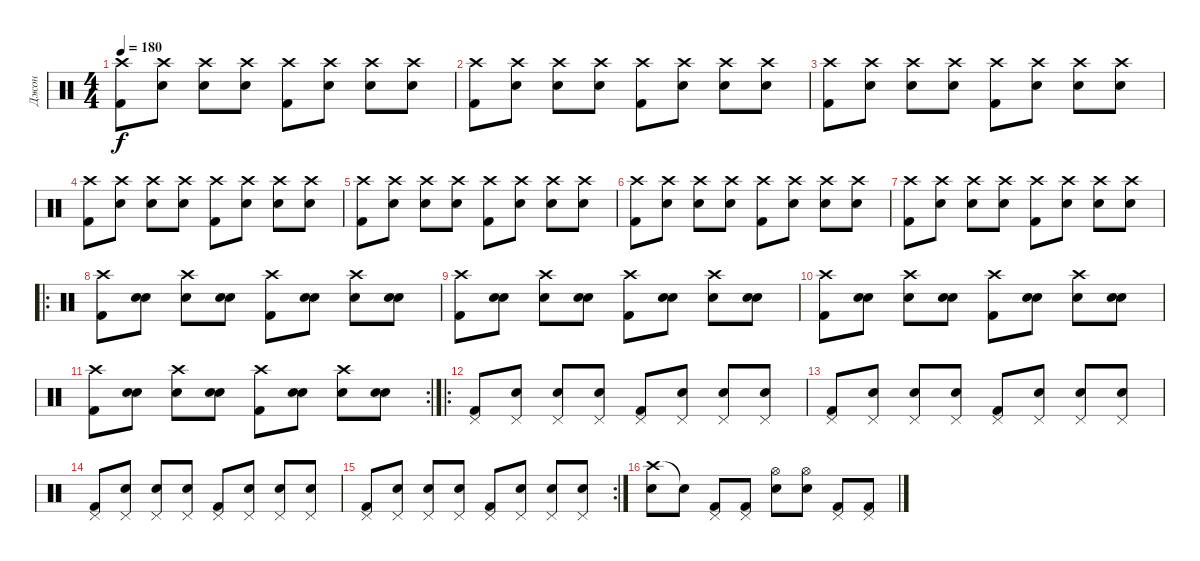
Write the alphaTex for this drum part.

\track ("Джон" "Джон") {instrument percussion}
\staff {score}
\articulation defaults
\ts (4 4)
\tempo 180
\clef neutral
\ks c
("Kick (hit) 2" "Crash high (hit)").8{dy f} ("Snare (hit)" "Crash high (hit)").8 ("Electric Snare (hit)" "Crash high (hit)").8 ("Snare (hit)" "Crash high (hit)").8 ("Kick (hit) 2" "Crash high (hit)").8 ("Snare (hit)" "Crash high (hit)").8 ("Electric Snare (hit)" "Crash high (hit)").8 ("Snare (hit)" "Crash high (hit)").8 |
("Kick (hit) 2" "Crash high (hit)").8 ("Snare (hit)" "Crash high (hit)").8 ("Electric Snare (hit)" "Crash high (hit)").8 ("Snare (hit)" "Crash high (hit)").8 ("Kick (hit) 2" "Crash high (hit)").8 ("Snare (hit)" "Crash high (hit)").8 ("Electric Snare (hit)" "Crash high (hit)").8 ("Snare (hit)" "Crash high (hit)").8 |
("Kick (hit) 2" "Crash high (hit)").8 ("Snare (hit)" "Crash high (hit)").8 ("Electric Snare (hit)" "Crash high (hit)").8 ("Snare (hit)" "Crash high (hit)").8 ("Kick (hit) 2" "Crash high (hit)").8 ("Snare (hit)" "Crash high (hit)").8 ("Electric Snare (hit)" "Crash high (hit)").8 ("Snare (hit)" "Crash high (hit)").8 |
("Kick (hit) 2" "Crash high (hit)").8 ("Snare (hit)" "Crash high (hit)").8 ("Electric Snare (hit)" "Crash high (hit)").8 ("Snare (hit)" "Crash high (hit)").8 ("Kick (hit) 2" "Crash high (hit)").8 ("Snare (hit)" "Crash high (hit)").8 ("Electric Snare (hit)" "Crash high (hit)").8 ("Snare (hit)" "Crash high (hit)").8 |
("Kick (hit) 2" "Crash high (hit)").8 ("Snare (hit)" "Crash high (hit)").8 ("Electric Snare (hit)" "Crash high (hit)").8 ("Snare (hit)" "Crash high (hit)").8 ("Kick (hit) 2" "Crash high (hit)").8 ("Snare (hit)" "Crash high (hit)").8 ("Electric Snare (hit)" "Crash high (hit)").8 ("Snare (hit)" "Crash high (hit)").8 |
("Kick (hit) 2" "Crash high (hit)").8 ("Snare (hit)" "Crash high (hit)").8 ("Electric Snare (hit)" "Crash high (hit)").8 ("Snare (hit)" "Crash high (hit)").8 ("Kick (hit) 2" "Crash high (hit)").8 ("Snare (hit)" "Crash high (hit)").8 ("Electric Snare (hit)" "Crash high (hit)").8 ("Snare (hit)" "Crash high (hit)").8 |
("Kick (hit) 2" "Crash high (hit)").8 ("Snare (hit)" "Crash high (hit)").8 ("Electric Snare (hit)" "Crash high (hit)").8 ("Snare (hit)" "Crash high (hit)").8 ("Kick (hit) 2" "Crash high (hit)").8 ("Snare (hit)" "Crash high (hit)").8 ("Electric Snare (hit)" "Crash high (hit)").8 ("Snare (hit)" "Crash high (hit)").8 |
\ro
("Kick (hit) 2" "Crash high (hit)").8 ("Snare (hit)" "Snare (hit)").8 ("Electric Snare (hit)" "Crash high (hit)").8 ("Snare (hit)" "Snare (hit)").8 ("Kick (hit) 2" "Crash high (hit)").8 ("Snare (hit)" "Snare (hit)").8 ("Electric Snare (hit)" "Crash high (hit)").8 ("Snare (hit)" "Snare (hit)").8 |
("Kick (hit) 2" "Crash high (hit)").8 ("Snare (hit)" "Snare (hit)").8 ("Electric Snare (hit)" "Crash high (hit)").8 ("Snare (hit)" "Snare (hit)").8 ("Kick (hit) 2" "Crash high (hit)").8 ("Snare (hit)" "Snare (hit)").8 ("Electric Snare (hit)" "Crash high (hit)").8 ("Snare (hit)" "Snare (hit)").8 |
("Kick (hit) 2" "Crash high (hit)").8 ("Snare (hit)" "Snare (hit)").8 ("Electric Snare (hit)" "Crash high (hit)").8 ("Snare (hit)" "Snare (hit)").8 ("Kick (hit) 2" "Crash high (hit)").8 ("Snare (hit)" "Snare (hit)").8 ("Electric Snare (hit)" "Crash high (hit)").8 ("Snare (hit)" "Snare (hit)").8 |
\rc 2
("Kick (hit) 2" "Crash high (hit)").8 ("Snare (hit)" "Snare (hit)").8 ("Electric Snare (hit)" "Crash high (hit)").8 ("Snare (hit)" "Snare (hit)").8 ("Kick (hit) 2" "Crash high (hit)").8 ("Snare (hit)" "Snare (hit)").8 ("Electric Snare (hit)" "Crash high (hit)").8 ("Snare (hit)" "Snare (hit)").8 |
\ro
("Kick (hit) 2" "Pedal Hi-Hat (hit)").8 ("Snare (hit)" "Pedal Hi-Hat (hit)").8 ("Electric Snare (hit)" "Pedal Hi-Hat (hit)").8 ("Snare (hit)" "Pedal Hi-Hat (hit)").8 ("Kick (hit) 2" "Pedal Hi-Hat (hit)").8 ("Snare (hit)" "Pedal Hi-Hat (hit)").8 ("Electric Snare (hit)" "Pedal Hi-Hat (hit)").8 ("Snare (hit)" "Pedal Hi-Hat (hit)").8 |
("Kick (hit) 2" "Pedal Hi-Hat (hit)").8 ("Snare (hit)" "Pedal Hi-Hat (hit)").8 ("Electric Snare (hit)" "Pedal Hi-Hat (hit)").8 ("Snare (hit)" "Pedal Hi-Hat (hit)").8 ("Kick (hit) 2" "Pedal Hi-Hat (hit)").8 ("Snare (hit)" "Pedal Hi-Hat (hit)").8 ("Electric Snare (hit)" "Pedal Hi-Hat (hit)").8 ("Snare (hit)" "Pedal Hi-Hat (hit)").8 |
("Kick (hit) 2" "Pedal Hi-Hat (hit)").8 ("Snare (hit)" "Pedal Hi-Hat (hit)").8 ("Electric Snare (hit)" "Pedal Hi-Hat (hit)").8 ("Snare (hit)" "Pedal Hi-Hat (hit)").8 ("Kick (hit) 2" "Pedal Hi-Hat (hit)").8 ("Snare (hit)" "Pedal Hi-Hat (hit)").8 ("Electric Snare (hit)" "Pedal Hi-Hat (hit)").8 ("Snare (hit)" "Pedal Hi-Hat (hit)").8 |
\rc 2
("Kick (hit) 2" "Pedal Hi-Hat (hit)").8 ("Snare (hit)" "Pedal Hi-Hat (hit)").8 ("Electric Snare (hit)" "Pedal Hi-Hat (hit)").8 ("Snare (hit)" "Pedal Hi-Hat (hit)").8 ("Kick (hit) 2" "Pedal Hi-Hat (hit)").8 ("Snare (hit)" "Pedal Hi-Hat (hit)").8 ("Electric Snare (hit)" "Pedal Hi-Hat (hit)").8 ("Snare (hit)" "Pedal Hi-Hat (hit)").8 |
("Crash high (hit)" "Electric Snare (hit)").8 "Snare (hit)"{t}.8 ("Kick (hit) 2" "Pedal Hi-Hat (hit)").8 ("Kick (hit) 2" "Pedal Hi-Hat (hit)").8 ("Snare (hit) 2" "Hi-Hat (open)").8 ("Snare (hit) 2" "Hi-Hat (open)").8 ("Kick (hit) 2" "Pedal Hi-Hat (hit)").8 ("Kick (hit) 2" "Pedal Hi-Hat (hit)").8
